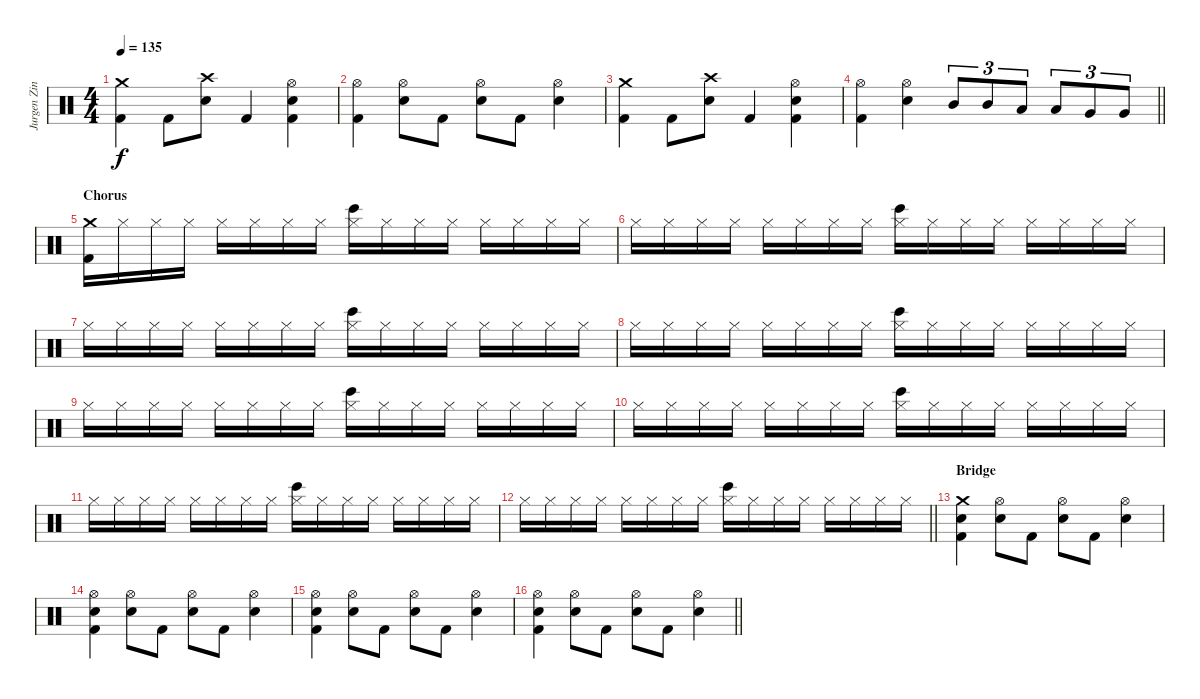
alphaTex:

\track ("Jurgen Zing" "Jurgen Zin") {instrument percussion}
\staff {score}
\articulation defaults
\ts (4 4)
\tempo 135
\clef neutral
\ks c
("Crash medium (hit)" "Kick (hit) 2").4{dy f} "Kick (hit) 2".8 ("Crash high (hit)" "Electric Snare (hit)").8 "Kick (hit) 2".4 ("Hi-Hat (open)" "Electric Snare (hit)" "Kick (hit) 2").4 |
("Hi-Hat (open)" "Kick (hit) 2").4 ("Hi-Hat (open)" "Electric Snare (hit)").8 "Kick (hit) 2".8 ("Hi-Hat (open)" "Electric Snare (hit)").8 "Kick (hit) 2".8 ("Hi-Hat (open)" "Electric Snare (hit)").4 |
("Crash medium (hit)" "Kick (hit) 2").4 "Kick (hit) 2".8 ("Crash high (hit)" "Electric Snare (hit)").8 "Kick (hit) 2".4 ("Hi-Hat (open)" "Electric Snare (hit)" "Kick (hit) 2").4 |
\barLineRight lightlight
("Hi-Hat (open)" "Kick (hit) 2").4 ("Hi-Hat (open)" "Electric Snare (hit)").4 "Mid Tom (hit)".8{tu (3 2)} "Mid Tom (hit)".8{tu (3 2)} "Low Tom (hit)".8{tu (3 2)} "Low Tom (hit)".8{tu (3 2)} "Very Low Tom (hit)".8{tu (3 2)} "Very Low Tom (hit)".8{tu (3 2)} |
\section ("" "Chorus")
("Crash medium (hit)" "Kick (hit) 2").16 "Hi-Hat (closed)".16 "Hi-Hat (closed)".16 "Hi-Hat (closed)".16 "Hi-Hat (closed)".16 "Hi-Hat (closed)".16 "Hi-Hat (closed)".16 "Hi-Hat (closed)".16 ("Hi-Hat (closed)" "Bongo High (hit)").16 "Hi-Hat (closed)".16 "Hi-Hat (closed)".16 "Hi-Hat (closed)".16 "Hi-Hat (closed)".16 "Hi-Hat (closed)".16 "Hi-Hat (closed)".16 "Hi-Hat (closed)".16 |
"Hi-Hat (closed)".16 "Hi-Hat (closed)".16 "Hi-Hat (closed)".16 "Hi-Hat (closed)".16 "Hi-Hat (closed)".16 "Hi-Hat (closed)".16 "Hi-Hat (closed)".16 "Hi-Hat (closed)".16 ("Hi-Hat (closed)" "Bongo High (hit)").16 "Hi-Hat (closed)".16 "Hi-Hat (closed)".16 "Hi-Hat (closed)".16 "Hi-Hat (closed)".16 "Hi-Hat (closed)".16 "Hi-Hat (closed)".16 "Hi-Hat (closed)".16 |
"Hi-Hat (closed)".16 "Hi-Hat (closed)".16 "Hi-Hat (closed)".16 "Hi-Hat (closed)".16 "Hi-Hat (closed)".16 "Hi-Hat (closed)".16 "Hi-Hat (closed)".16 "Hi-Hat (closed)".16 ("Hi-Hat (closed)" "Bongo High (hit)").16 "Hi-Hat (closed)".16 "Hi-Hat (closed)".16 "Hi-Hat (closed)".16 "Hi-Hat (closed)".16 "Hi-Hat (closed)".16 "Hi-Hat (closed)".16 "Hi-Hat (closed)".16 |
"Hi-Hat (closed)".16 "Hi-Hat (closed)".16 "Hi-Hat (closed)".16 "Hi-Hat (closed)".16 "Hi-Hat (closed)".16 "Hi-Hat (closed)".16 "Hi-Hat (closed)".16 "Hi-Hat (closed)".16 ("Hi-Hat (closed)" "Bongo High (hit)").16 "Hi-Hat (closed)".16 "Hi-Hat (closed)".16 "Hi-Hat (closed)".16 "Hi-Hat (closed)".16 "Hi-Hat (closed)".16 "Hi-Hat (closed)".16 "Hi-Hat (closed)".16 |
"Hi-Hat (closed)".16 "Hi-Hat (closed)".16 "Hi-Hat (closed)".16 "Hi-Hat (closed)".16 "Hi-Hat (closed)".16 "Hi-Hat (closed)".16 "Hi-Hat (closed)".16 "Hi-Hat (closed)".16 ("Hi-Hat (closed)" "Bongo High (hit)").16 "Hi-Hat (closed)".16 "Hi-Hat (closed)".16 "Hi-Hat (closed)".16 "Hi-Hat (closed)".16 "Hi-Hat (closed)".16 "Hi-Hat (closed)".16 "Hi-Hat (closed)".16 |
"Hi-Hat (closed)".16 "Hi-Hat (closed)".16 "Hi-Hat (closed)".16 "Hi-Hat (closed)".16 "Hi-Hat (closed)".16 "Hi-Hat (closed)".16 "Hi-Hat (closed)".16 "Hi-Hat (closed)".16 ("Hi-Hat (closed)" "Bongo High (hit)").16 "Hi-Hat (closed)".16 "Hi-Hat (closed)".16 "Hi-Hat (closed)".16 "Hi-Hat (closed)".16 "Hi-Hat (closed)".16 "Hi-Hat (closed)".16 "Hi-Hat (closed)".16 |
"Hi-Hat (closed)".16 "Hi-Hat (closed)".16 "Hi-Hat (closed)".16 "Hi-Hat (closed)".16 "Hi-Hat (closed)".16 "Hi-Hat (closed)".16 "Hi-Hat (closed)".16 "Hi-Hat (closed)".16 ("Hi-Hat (closed)" "Bongo High (hit)").16 "Hi-Hat (closed)".16 "Hi-Hat (closed)".16 "Hi-Hat (closed)".16 "Hi-Hat (closed)".16 "Hi-Hat (closed)".16 "Hi-Hat (closed)".16 "Hi-Hat (closed)".16 |
\barLineRight lightlight "Hi-Hat (closed)".16 "Hi-Hat (closed)".16 "Hi-Hat (closed)".16 "Hi-Hat (closed)".16 "Hi-Hat (closed)".16 "Hi-Hat (closed)".16 "Hi-Hat (closed)".16 "Hi-Hat (closed)".16
("Hi-Hat (closed)" "Bongo High (hit)").16 "Hi-Hat (closed)".16 "Hi-Hat (closed)".16 "Hi-Hat (closed)".16 "Hi-Hat (closed)".16 "Hi-Hat (closed)".16 "Hi-Hat (closed)".16 "Hi-Hat (closed)".16 |
\section ("" "Bridge")
("Crash medium (hit)" "Electric Snare (hit)" "Kick (hit) 2").4 ("Hi-Hat (open)" "Electric Snare (hit)").8 "Kick (hit) 2".8 ("Hi-Hat (open)" "Electric Snare (hit)").8 "Kick (hit) 2".8 ("Hi-Hat (open)" "Electric Snare (hit)").4 |
("Hi-Hat (open)" "Electric Snare (hit)" "Kick (hit) 2").4 ("Hi-Hat (open)" "Electric Snare (hit)").8 "Kick (hit) 2".8 ("Hi-Hat (open)" "Electric Snare (hit)").8 "Kick (hit) 2".8 ("Hi-Hat (open)" "Electric Snare (hit)").4 |
("Hi-Hat (open)" "Electric Snare (hit)" "Kick (hit) 2").4 ("Hi-Hat (open)" "Electric Snare (hit)").8 "Kick (hit) 2".8 ("Hi-Hat (open)" "Electric Snare (hit)").8 "Kick (hit) 2".8 ("Hi-Hat (open)" "Electric Snare (hit)").4 |
\barLineRight lightlight
("Hi-Hat (open)" "Electric Snare (hit)" "Kick (hit) 2").4 ("Hi-Hat (open)" "Electric Snare (hit)").8 "Kick (hit) 2".8 ("Hi-Hat (open)" "Electric Snare (hit)").8 "Kick (hit) 2".8 ("Hi-Hat (open)" "Electric Snare (hit)").4
